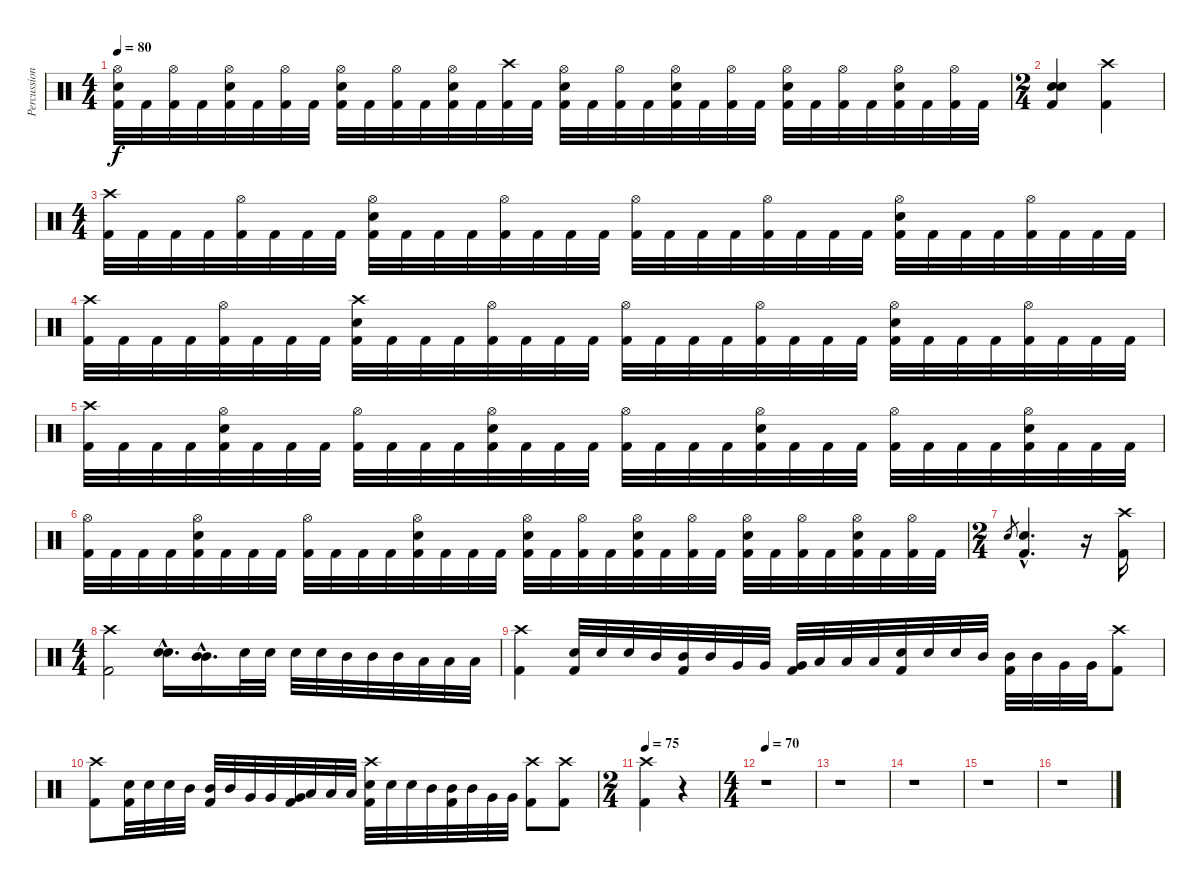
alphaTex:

\track ("Percussions" "Percussion") {instrument percussion}
\staff {score}
\articulation defaults
\ts (4 4)
\tempo 80
\clef neutral
\ks c
("Hi-Hat (open)" "Electric Snare (hit)" "Kick (hit) 2").32{dy f} "Kick (hit) 2".32 ("Hi-Hat (open)" "Kick (hit) 2").32 "Kick (hit) 2".32 ("Hi-Hat (open)" "Electric Snare (hit)" "Kick (hit) 2").32 "Kick (hit) 2".32 ("Hi-Hat (open)" "Kick (hit) 2").32 "Kick (hit) 2".32 ("Hi-Hat (open)" "Electric Snare (hit)" "Kick (hit) 2").32 "Kick (hit) 2".32 ("Hi-Hat (open)" "Kick (hit) 2").32 "Kick (hit) 2".32 ("Hi-Hat (open)" "Electric Snare (hit)" "Kick (hit) 2").32 "Kick (hit) 2".32 ("Crash high (hit)" "Kick (hit) 2").32 "Kick (hit) 2".32 ("Hi-Hat (open)" "Electric Snare (hit)" "Kick (hit) 2").32 "Kick (hit) 2".32 ("Hi-Hat (open)" "Kick (hit) 2").32 "Kick (hit) 2".32 ("Hi-Hat (open)" "Electric Snare (hit)" "Kick (hit) 2").32 "Kick (hit) 2".32 ("Hi-Hat (open)" "Kick (hit) 2").32 "Kick (hit) 2".32 ("Hi-Hat (open)" "Electric Snare (hit)" "Kick (hit) 2").32 "Kick (hit) 2".32 ("Hi-Hat (open)" "Kick (hit) 2").32 "Kick (hit) 2".32 ("Hi-Hat (open)" "Electric Snare (hit)" "Kick (hit) 2").32 "Kick (hit) 2".32 ("Hi-Hat (open)" "Kick (hit) 2").32 "Kick (hit) 2".32 |
\ts (2 4)
("Electric Snare (hit)" "Electric Snare (hit)" "Kick (hit) 2").4 ("Crash high (hit)" "Kick (hit) 2").4 |
\ts (4 4)
("Crash high (hit)" "Kick (hit) 2").32 "Kick (hit) 2".32 "Kick (hit) 2".32 "Kick (hit) 2".32 ("Hi-Hat (open)" "Kick (hit) 2").32 "Kick (hit) 2".32 "Kick (hit) 2".32 "Kick (hit) 2".32 ("Hi-Hat (open)" "Electric Snare (hit)" "Kick (hit) 2").32 "Kick (hit) 2".32 "Kick (hit) 2".32 "Kick (hit) 2".32 ("Hi-Hat (open)" "Kick (hit) 2").32 "Kick (hit) 2".32 "Kick (hit) 2".32 "Kick (hit) 2".32 ("Hi-Hat (open)" "Kick (hit) 2").32 "Kick (hit) 2".32 "Kick (hit) 2".32 "Kick (hit) 2".32 ("Hi-Hat (open)" "Kick (hit) 2").32 "Kick (hit) 2".32 "Kick (hit) 2".32 "Kick (hit) 2".32 ("Hi-Hat (open)" "Electric Snare (hit)" "Kick (hit) 2").32 "Kick (hit) 2".32 "Kick (hit) 2".32 "Kick (hit) 2".32 ("Hi-Hat (open)" "Kick (hit) 2").32 "Kick (hit) 2".32 "Kick (hit) 2".32 "Kick (hit) 2".32 |
("Crash high (hit)" "Kick (hit) 2").32 "Kick (hit) 2".32 "Kick (hit) 2".32 "Kick (hit) 2".32 ("Hi-Hat (open)" "Kick (hit) 2").32 "Kick (hit) 2".32 "Kick (hit) 2".32 "Kick (hit) 2".32 ("Crash high (hit)" "Electric Snare (hit)" "Kick (hit) 2").32 "Kick (hit) 2".32 "Kick (hit) 2".32 "Kick (hit) 2".32 ("Hi-Hat (open)" "Kick (hit) 2").32 "Kick (hit) 2".32 "Kick (hit) 2".32 "Kick (hit) 2".32 ("Hi-Hat (open)" "Kick (hit) 2").32 "Kick (hit) 2".32 "Kick (hit) 2".32 "Kick (hit) 2".32 ("Hi-Hat (open)" "Kick (hit) 2").32 "Kick (hit) 2".32 "Kick (hit) 2".32 "Kick (hit) 2".32 ("Hi-Hat (open)" "Electric Snare (hit)" "Kick (hit) 2").32 "Kick (hit) 2".32 "Kick (hit) 2".32 "Kick (hit) 2".32 ("Hi-Hat (open)" "Kick (hit) 2").32 "Kick (hit) 2".32 "Kick (hit) 2".32 "Kick (hit) 2".32 |
("Crash high (hit)" "Kick (hit) 2").32 "Kick (hit) 2".32 "Kick (hit) 2".32 "Kick (hit) 2".32 ("Hi-Hat (open)" "Electric Snare (hit)" "Kick (hit) 2").32 "Kick (hit) 2".32 "Kick (hit) 2".32 "Kick (hit) 2".32 ("Hi-Hat (open)" "Kick (hit) 2").32 "Kick (hit) 2".32 "Kick (hit) 2".32 "Kick (hit) 2".32 ("Hi-Hat (open)" "Electric Snare (hit)" "Kick (hit) 2").32 "Kick (hit) 2".32 "Kick (hit) 2".32 "Kick (hit) 2".32 ("Hi-Hat (open)" "Kick (hit) 2").32 "Kick (hit) 2".32 "Kick (hit) 2".32 "Kick (hit) 2".32 ("Hi-Hat (open)" "Electric Snare (hit)" "Kick (hit) 2").32 "Kick (hit) 2".32 "Kick (hit) 2".32 "Kick (hit) 2".32 ("Hi-Hat (open)" "Kick (hit) 2").32 "Kick (hit) 2".32 "Kick (hit) 2".32 "Kick (hit) 2".32 ("Hi-Hat (open)" "Electric Snare (hit)" "Kick (hit) 2").32 "Kick (hit) 2".32 "Kick (hit) 2".32 "Kick (hit) 2".32 |
("Hi-Hat (open)" "Kick (hit) 2").32 "Kick (hit) 2".32 "Kick (hit) 2".32 "Kick (hit) 2".32 ("Hi-Hat (open)" "Electric Snare (hit)" "Kick (hit) 2").32 "Kick (hit) 2".32 "Kick (hit) 2".32 "Kick (hit) 2".32 ("Hi-Hat (open)" "Kick (hit) 2").32 "Kick (hit) 2".32 "Kick (hit) 2".32 "Kick (hit) 2".32 ("Hi-Hat (open)" "Electric Snare (hit)" "Kick (hit) 2").32 "Kick (hit) 2".32 "Kick (hit) 2".32 "Kick (hit) 2".32 ("Hi-Hat (open)" "Electric Snare (hit)" "Kick (hit) 2").32 "Kick (hit) 2".32 ("Hi-Hat (open)" "Kick (hit) 2").32 "Kick (hit) 2".32 ("Hi-Hat (open)" "Electric Snare (hit)" "Kick (hit) 2").32 "Kick (hit) 2".32 ("Hi-Hat (open)" "Kick (hit) 2").32 "Kick (hit) 2".32 ("Hi-Hat (open)" "Electric Snare (hit)" "Kick (hit) 2").32 "Kick (hit) 2".32 ("Hi-Hat (open)" "Kick (hit) 2").32 "Kick (hit) 2".32 ("Hi-Hat (open)" "Electric Snare (hit)" "Kick (hit) 2").32 "Kick (hit) 2".32 ("Hi-Hat (open)" "Kick (hit) 2").32 "Kick (hit) 2".32 |
\ts (2 4)
"Electric Snare (hit)".8{gr} ("Electric Snare (hit)"{hac} "Kick (hit) 2"{hac}).4{d} r.16 ("Crash high (hit)" "Kick (hit) 2").16 |
\ts (4 4)
("Crash high (hit)" "Kick (hit) 2").2 ("Electric Snare (hit)"{hac} "Electric Snare (hit)"{hac}).16{d} ("Mid Tom (hit)"{hac} "Mid Tom (hit)"{hac}).16{d} "Electric Snare (hit)".32 "Electric Snare (hit)".32 "Electric Snare (hit)".32 "Electric Snare (hit)".32 "Mid Tom (hit)".32 "Mid Tom (hit)".32 "Mid Tom (hit)".32 "Low Floor Tom (hit)".32 "Low Floor Tom (hit)".32 "Low Floor Tom (hit)".32 |
("Crash high (hit)" "Kick (hit) 2").4 ("Electric Snare (hit)" "Kick (hit) 2").32 "Electric Snare (hit)".32 "Electric Snare (hit)".32 "Mid Tom (hit)".32 ("Mid Tom (hit)" "Kick (hit) 2").32 "Mid Tom (hit)".32 "Very Low Tom (hit)".32 "Very Low Tom (hit)".32 ("Very Low Tom (hit)" "Kick (hit) 2").32 "Low Floor Tom (hit)".32 "Low Floor Tom (hit)".32 "Low Floor Tom (hit)".32 ("Electric Snare (hit)" "Kick (hit) 2").32 "Electric Snare (hit)".32 "Electric Snare (hit)".32 "Mid Tom (hit)".32 ("Mid Tom (hit)" "Kick (hit) 2").32 "Mid Tom (hit)".32 "Very Low Tom (hit)".32 "Very Low Tom (hit)".32 ("Crash high (hit)" "Kick (hit) 2").8 |
("Crash high (hit)" "Kick (hit) 2").8 ("Electric Snare (hit)" "Kick (hit) 2").32 "Electric Snare (hit)".32 "Electric Snare (hit)".32 "Mid Tom (hit)".32 ("Mid Tom (hit)" "Kick (hit) 2").32 "Mid Tom (hit)".32 "Very Low Tom (hit)".32 "Very Low Tom (hit)".32 ("Very Low Tom (hit)" "Kick (hit) 2").32 "Low Floor Tom (hit)".32 "Low Floor Tom (hit)".32 "Low Floor Tom (hit)".32 ("Crash high (hit)" "Electric Snare (hit)" "Kick (hit) 2").32 "Electric Snare (hit)".32 "Electric Snare (hit)".32 "Mid Tom (hit)".32 ("Mid Tom (hit)" "Kick (hit) 2").32 "Mid Tom (hit)".32 "Very Low Tom (hit)".32 "Very Low Tom (hit)".32 ("Crash high (hit)" "Kick (hit) 2").8 ("Crash high (hit)" "Kick (hit) 2").8 |
\ts (2 4)
\tempo 75
("Crash high (hit)" "Kick (hit) 2").4 r.4 |
\ts (4 4)
\tempo 70
r.1 |
r.1 |
r.1 |
r.1 |
r.1
